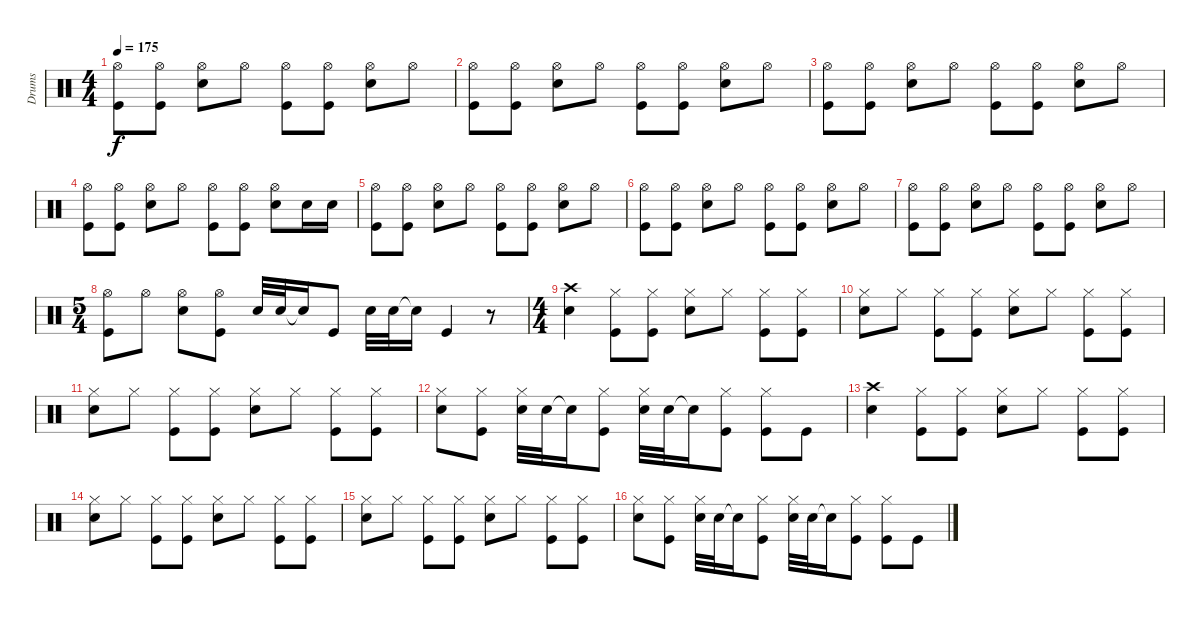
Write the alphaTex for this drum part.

\track ("Drums" "Drums") {instrument percussion}
\staff {score}
\articulation defaults
\ts (4 4)
\tempo 175
\clef neutral
\ks c
("Hi-Hat (open)" "Kick (hit)").8{dy f} ("Hi-Hat (open)" "Kick (hit)").8 ("Hi-Hat (open)" "Snare (hit) 2").8 "Hi-Hat (open)".8 ("Hi-Hat (open)" "Kick (hit)").8 ("Hi-Hat (open)" "Kick (hit)").8 ("Hi-Hat (open)" "Snare (hit) 2").8 "Hi-Hat (open)".8 |
("Hi-Hat (open)" "Kick (hit)").8 ("Hi-Hat (open)" "Kick (hit)").8 ("Hi-Hat (open)" "Snare (hit) 2").8 "Hi-Hat (open)".8 ("Hi-Hat (open)" "Kick (hit)").8 ("Hi-Hat (open)" "Kick (hit)").8 ("Hi-Hat (open)" "Snare (hit) 2").8 "Hi-Hat (open)".8 |
("Hi-Hat (open)" "Kick (hit)").8 ("Hi-Hat (open)" "Kick (hit)").8 ("Hi-Hat (open)" "Snare (hit) 2").8 "Hi-Hat (open)".8 ("Hi-Hat (open)" "Kick (hit)").8 ("Hi-Hat (open)" "Kick (hit)").8 ("Hi-Hat (open)" "Snare (hit) 2").8 "Hi-Hat (open)".8 |
("Hi-Hat (open)" "Kick (hit)").8 ("Hi-Hat (open)" "Kick (hit)").8 ("Hi-Hat (open)" "Snare (hit) 2").8 "Hi-Hat (open)".8 ("Hi-Hat (open)" "Kick (hit)").8 ("Hi-Hat (open)" "Kick (hit)").8 ("Hi-Hat (open)" "Snare (hit) 2").8 "Snare (hit) 2".16 "Snare (hit) 2".16 |
("Hi-Hat (open)" "Kick (hit)").8 ("Hi-Hat (open)" "Kick (hit)").8 ("Hi-Hat (open)" "Snare (hit) 2").8 "Hi-Hat (open)".8 ("Hi-Hat (open)" "Kick (hit)").8 ("Hi-Hat (open)" "Kick (hit)").8 ("Hi-Hat (open)" "Snare (hit) 2").8 "Hi-Hat (open)".8 |
("Hi-Hat (open)" "Kick (hit)").8 ("Hi-Hat (open)" "Kick (hit)").8 ("Hi-Hat (open)" "Snare (hit) 2").8 "Hi-Hat (open)".8 ("Hi-Hat (open)" "Kick (hit)").8 ("Hi-Hat (open)" "Kick (hit)").8 ("Hi-Hat (open)" "Snare (hit) 2").8 "Hi-Hat (open)".8 |
("Hi-Hat (open)" "Kick (hit)").8 ("Hi-Hat (open)" "Kick (hit)").8 ("Hi-Hat (open)" "Snare (hit) 2").8 "Hi-Hat (open)".8 ("Hi-Hat (open)" "Kick (hit)").8 ("Hi-Hat (open)" "Kick (hit)").8 ("Hi-Hat (open)" "Snare (hit) 2").8 "Hi-Hat (open)".8 |
\ts (5 4)
("Hi-Hat (open)" "Kick (hit)").8 "Hi-Hat (open)".8 ("Hi-Hat (open)" "Snare (hit) 2").8 ("Hi-Hat (open)" "Kick (hit)").8 "Snare (hit) 2".32 "Snare (hit) 2".32 "Snare (hit)"{t}.16 "Kick (hit)".8 "Snare (hit) 2".32 "Snare (hit) 2".32 "Snare (hit)"{t}.16 "Kick (hit)".4 r.8 |
\ts (4 4)
("Crash high (hit)" "Snare (hit) 2").4 ("Hi-Hat (closed)" "Kick (hit)").8 ("Hi-Hat (closed)" "Kick (hit)").8 ("Hi-Hat (closed)" "Snare (hit) 2").8 "Hi-Hat (closed)".8 ("Hi-Hat (closed)" "Kick (hit)").8 ("Hi-Hat (closed)" "Kick (hit)").8 |
("Hi-Hat (closed)" "Snare (hit) 2").8 "Hi-Hat (closed)".8 ("Hi-Hat (closed)" "Kick (hit)").8 ("Hi-Hat (closed)" "Kick (hit)").8 ("Hi-Hat (closed)" "Snare (hit) 2").8 "Hi-Hat (closed)".8 ("Hi-Hat (closed)" "Kick (hit)").8 ("Hi-Hat (closed)" "Kick (hit)").8 |
("Hi-Hat (closed)" "Snare (hit) 2").8 "Hi-Hat (closed)".8 ("Hi-Hat (closed)" "Kick (hit)").8 ("Hi-Hat (closed)" "Kick (hit)").8 ("Hi-Hat (closed)" "Snare (hit) 2").8 "Hi-Hat (closed)".8 ("Hi-Hat (closed)" "Kick (hit)").8 ("Hi-Hat (closed)" "Kick (hit)").8 |
("Hi-Hat (closed)" "Snare (hit) 2").8 ("Hi-Hat (closed)" "Kick (hit)").8 ("Hi-Hat (closed)" "Snare (hit) 2").32 "Snare (hit) 2".32 "Snare (hit)"{t}.16 ("Hi-Hat (closed)" "Kick (hit)").8 ("Hi-Hat (closed)" "Snare (hit) 2").32 "Snare (hit) 2".32 "Snare (hit)"{t}.16 ("Hi-Hat (closed)" "Kick (hit)").8 ("Hi-Hat (closed)" "Kick (hit)").8 "Kick (hit)".8 |
("Crash high (hit)" "Snare (hit) 2").4 ("Hi-Hat (closed)" "Kick (hit)").8 ("Hi-Hat (closed)" "Kick (hit)").8 ("Hi-Hat (closed)" "Snare (hit) 2").8 "Hi-Hat (closed)".8 ("Hi-Hat (closed)" "Kick (hit)").8 ("Hi-Hat (closed)" "Kick (hit)").8 |
("Hi-Hat (closed)" "Snare (hit) 2").8 "Hi-Hat (closed)".8 ("Hi-Hat (closed)" "Kick (hit)").8 ("Hi-Hat (closed)" "Kick (hit)").8 ("Hi-Hat (closed)" "Snare (hit) 2").8 "Hi-Hat (closed)".8 ("Hi-Hat (closed)" "Kick (hit)").8 ("Hi-Hat (closed)" "Kick (hit)").8 |
("Hi-Hat (closed)" "Snare (hit) 2").8 "Hi-Hat (closed)".8 ("Hi-Hat (closed)" "Kick (hit)").8 ("Hi-Hat (closed)" "Kick (hit)").8 ("Hi-Hat (closed)" "Snare (hit) 2").8 "Hi-Hat (closed)".8 ("Hi-Hat (closed)" "Kick (hit)").8 ("Hi-Hat (closed)" "Kick (hit)").8 |
("Hi-Hat (closed)" "Snare (hit) 2").8 ("Hi-Hat (closed)" "Kick (hit)").8 ("Hi-Hat (closed)" "Snare (hit) 2").32 "Snare (hit) 2".32 "Snare (hit)"{t}.16 ("Hi-Hat (closed)" "Kick (hit)").8 ("Hi-Hat (closed)" "Snare (hit) 2").32 "Snare (hit) 2".32 "Snare (hit)"{t}.16 ("Hi-Hat (closed)" "Kick (hit)").8 ("Hi-Hat (closed)" "Kick (hit)").8 "Kick (hit)".8
